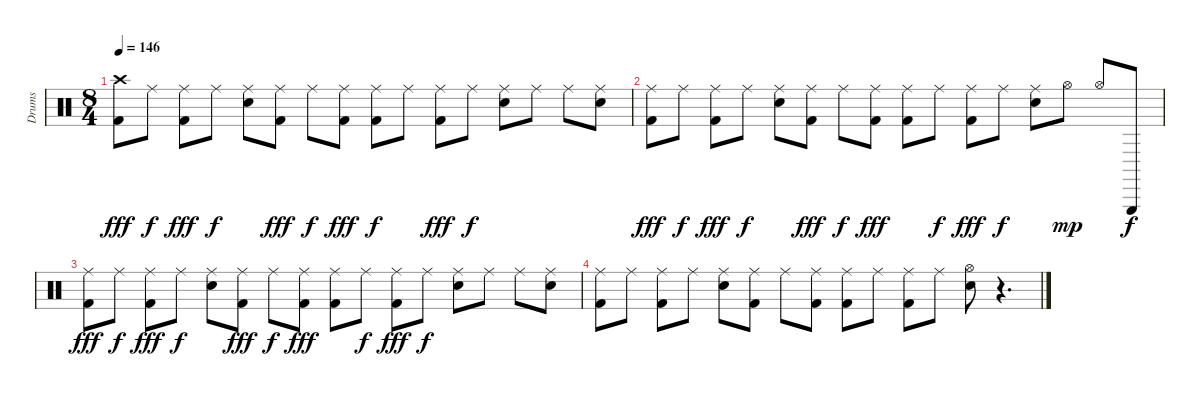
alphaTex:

\track ("Drums" "Drums") {instrument percussion}
\staff {score}
\articulation defaults
\ts (8 4)
\tempo 146
\clef neutral
\ks c
("Crash high (hit)" "Kick (hit) 2").8{dy fff} "Ride (middle)".8{dy f} ("Ride (middle)" "Kick (hit) 2").8{dy fff} "Ride (middle)".8{dy f} ("Ride (middle)" "Snare (hit) 2").8 ("Ride (middle)" "Kick (hit) 2").8{dy fff} "Ride (middle)".8{dy f} ("Ride (middle)" "Kick (hit) 2").8{dy fff} ("Ride (middle)" "Kick (hit) 2").8{dy f} "Ride (middle)".8 ("Ride (middle)" "Kick (hit) 2").8{dy fff} "Ride (middle)".8{dy f} ("Ride (middle)" "Snare (hit) 2").8 "Ride (middle)".8 "Ride (middle)".8 ("Ride (middle)" "Snare (hit) 2").8 |
("Ride (middle)" "Kick (hit) 2").8{dy fff} "Ride (middle)".8{dy f} ("Ride (middle)" "Kick (hit) 2").8{dy fff} "Ride (middle)".8{dy f} ("Ride (middle)" "Snare (hit) 2").8 ("Ride (middle)" "Kick (hit) 2").8{dy fff} "Ride (middle)".8{dy f} ("Ride (middle)" "Kick (hit) 2").8{dy fff} ("Ride (middle)" "Kick (hit) 2").8 "Ride (middle)".8{dy f} ("Ride (middle)" "Kick (hit) 2").8{dy fff} "Ride (middle)".8{dy f} ("Ride (middle)" "Snare (hit) 2").8 "Hi-Hat (open)".8{dy mp} "Hi-Hat (open)".8 "Triangle (hit)".8{dy f} |
("Ride (middle)" "Kick (hit) 2").8{dy fff} "Ride (middle)".8{dy f} ("Ride (middle)" "Kick (hit) 2").8{dy fff} "Ride (middle)".8{dy f} ("Ride (middle)" "Snare (hit) 2").8 ("Ride (middle)" "Kick (hit) 2").8{dy fff} "Ride (middle)".8{dy f} ("Ride (middle)" "Kick (hit) 2").8{dy fff} ("Ride (middle)" "Kick (hit) 2").8 "Ride (middle)".8{dy f} ("Ride (middle)" "Kick (hit) 2").8{dy fff} "Ride (middle)".8{dy f} ("Ride (middle)" "Snare (hit) 2").8 "Ride (middle)".8 "Ride (middle)".8 ("Ride (middle)" "Snare (hit) 2").8 |
("Ride (middle)" "Kick (hit) 2").8 "Ride (middle)".8 ("Ride (middle)" "Kick (hit) 2").8 "Ride (middle)".8 ("Ride (middle)" "Snare (hit) 2").8 ("Ride (middle)" "Kick (hit) 2").8 "Ride (middle)".8 ("Ride (middle)" "Kick (hit) 2").8 ("Ride (middle)" "Kick (hit) 2").8 "Ride (middle)".8 ("Ride (middle)" "Kick (hit) 2").8 "Ride (middle)".8 ("Hi-Hat (open)" "Snare (hit) 2").8 r.4{d}
